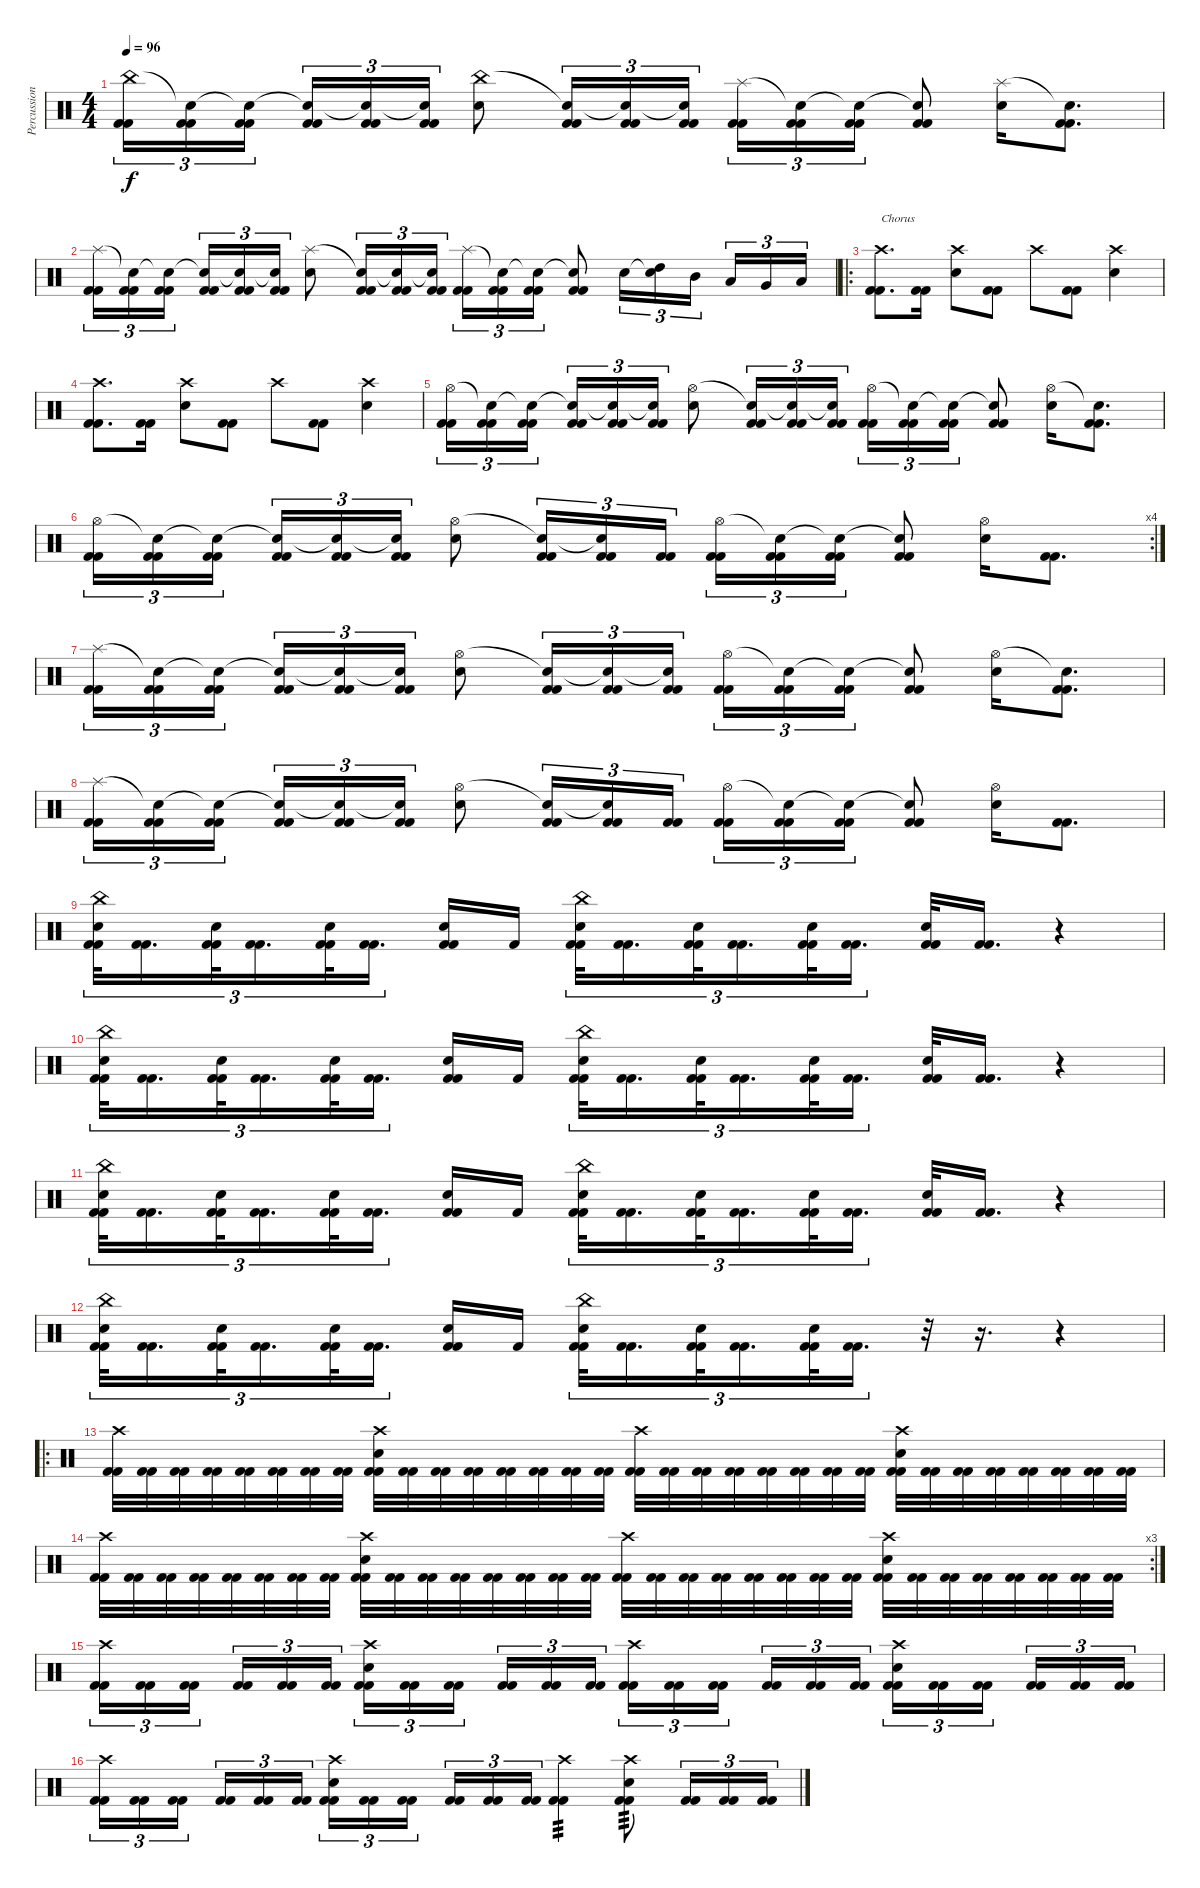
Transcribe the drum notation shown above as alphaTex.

\track ("Percussion" "Percussion") {instrument percussion}
\staff {score}
\articulation defaults
\ts (4 4)
\tempo 96
\clef neutral
\ks c
("China (hit)" "Kick (hit) 2" "Kick (hit) 2").16{tu (3 2) dy f} ("Snare (hit)"{t} "Kick (hit) 2" "Kick (hit) 2").16{tu (3 2)} ("Snare (hit)"{t} "Kick (hit) 2" "Kick (hit) 2").16{tu (3 2) beam splitsecondary} ("Snare (hit)"{t} "Kick (hit) 2" "Kick (hit) 2").16{tu (3 2)} ("Snare (hit)"{t} "Kick (hit) 2" "Kick (hit) 2").16{tu (3 2)} ("Snare (hit)"{t} "Kick (hit) 2" "Kick (hit) 2").16{tu (3 2)} ("China (hit)" "Snare (hit) 2").8 ("Snare (hit)"{t} "Kick (hit) 2" "Kick (hit) 2").16{tu (3 2)} ("Snare (hit)"{t} "Kick (hit) 2" "Kick (hit) 2").16{tu (3 2)} ("Snare (hit)"{t} "Kick (hit) 2" "Kick (hit) 2").16{tu (3 2)} ("Splash (hit)" "Kick (hit) 2" "Kick (hit) 2").16{tu (3 2)} ("Snare (hit)"{t} "Kick (hit) 2" "Kick (hit) 2").16{tu (3 2)} ("Snare (hit)"{t} "Kick (hit) 2" "Kick (hit) 2").16{tu (3 2)} ("Snare (hit)"{t} "Kick (hit) 2" "Kick (hit) 2").8 ("Splash (hit)" "Snare (hit) 2").16 ("Snare (hit)"{t} "Kick (hit) 2" "Kick (hit) 2").8{d} |
("Splash (hit)" "Kick (hit) 2" "Kick (hit) 2").16{tu (3 2)} ("Snare (hit)"{t} "Kick (hit) 2" "Kick (hit) 2").16{tu (3 2)} ("Snare (hit)"{t} "Kick (hit) 2" "Kick (hit) 2").16{tu (3 2) beam splitsecondary} ("Snare (hit)"{t} "Kick (hit) 2" "Kick (hit) 2").16{tu (3 2)} ("Snare (hit)"{t} "Kick (hit) 2" "Kick (hit) 2").16{tu (3 2)} ("Snare (hit)"{t} "Kick (hit) 2" "Kick (hit) 2").16{tu (3 2)} ("Splash (hit)" "Snare (hit) 2").8 ("Snare (hit)"{t} "Kick (hit) 2" "Kick (hit) 2").16{tu (3 2)} ("Snare (hit)"{t} "Kick (hit) 2" "Kick (hit) 2").16{tu (3 2)} ("Snare (hit)"{t} "Kick (hit) 2" "Kick (hit) 2").16{tu (3 2)} ("Splash (hit)" "Kick (hit) 2" "Kick (hit) 2").16{tu (3 2)} ("Snare (hit)"{t} "Kick (hit) 2" "Kick (hit) 2").16{tu (3 2)} ("Snare (hit)"{t} "Kick (hit) 2" "Kick (hit) 2").16{tu (3 2)} ("Snare (hit)"{t} "Kick (hit) 2" "Kick (hit) 2").8 "Snare (hit) 2".16{tu (3 2)} ("Snare (hit)"{t} "High Tom (hit)").16{tu (3 2)} "Mid Tom (hit)".16{tu (3 2) beam splitsecondary} "Low Tom (hit)".16{tu (3 2)} "Very Low Tom (hit)".16{tu (3 2)} "Low Floor Tom (hit)".16{tu (3 2)} |
\ro
("Crash high (hit)" "Kick (hit) 2" "Kick (hit) 2").8{d txt "Chorus"} ("Kick (hit) 2" "Kick (hit) 2").16 ("Crash high (hit)" "Snare (hit) 2").8 ("Kick (hit) 2" "Kick (hit) 2").8 "Crash high (hit)".8 ("Kick (hit) 2" "Kick (hit) 2").8 ("Crash high (hit)" "Snare (hit) 2").4 |
("Crash high (hit)" "Kick (hit) 2" "Kick (hit) 2").8{d} ("Kick (hit) 2" "Kick (hit) 2").16 ("Crash high (hit)" "Snare (hit) 2").8 ("Kick (hit) 2" "Kick (hit) 2").8 "Crash high (hit)".8 ("Kick (hit) 2" "Kick (hit) 2").8 ("Crash high (hit)" "Snare (hit) 2").4 |
("Hi-Hat (open)" "Kick (hit) 2" "Kick (hit) 2").16{tu (3 2)} ("Snare (hit)"{t} "Kick (hit) 2" "Kick (hit) 2").16{tu (3 2)} ("Snare (hit)"{t} "Kick (hit) 2" "Kick (hit) 2").16{tu (3 2) beam splitsecondary} ("Snare (hit)"{t} "Kick (hit) 2" "Kick (hit) 2").16{tu (3 2)} ("Snare (hit)"{t} "Kick (hit) 2" "Kick (hit) 2").16{tu (3 2)} ("Snare (hit)"{t} "Kick (hit) 2" "Kick (hit) 2").16{tu (3 2)} ("Hi-Hat (open)" "Snare (hit) 2").8 ("Snare (hit)"{t} "Kick (hit) 2" "Kick (hit) 2").16{tu (3 2)} ("Snare (hit)"{t} "Kick (hit) 2" "Kick (hit) 2").16{tu (3 2)} ("Snare (hit)"{t} "Kick (hit) 2" "Kick (hit) 2").16{tu (3 2)} ("Hi-Hat (open)" "Kick (hit) 2" "Kick (hit) 2").16{tu (3 2)} ("Snare (hit)"{t} "Kick (hit) 2" "Kick (hit) 2").16{tu (3 2)} ("Snare (hit)"{t} "Kick (hit) 2" "Kick (hit) 2").16{tu (3 2)} ("Snare (hit)"{t} "Kick (hit) 2" "Kick (hit) 2").8 ("Hi-Hat (open)" "Snare (hit) 2").16 ("Snare (hit)"{t} "Kick (hit) 2" "Kick (hit) 2").8{d} |
\rc 4
("Hi-Hat (open)" "Kick (hit) 2" "Kick (hit) 2").16{tu (3 2)} ("Snare (hit)"{t} "Kick (hit) 2" "Kick (hit) 2").16{tu (3 2)} ("Snare (hit)"{t} "Kick (hit) 2" "Kick (hit) 2").16{tu (3 2) beam splitsecondary} ("Snare (hit)"{t} "Kick (hit) 2" "Kick (hit) 2").16{tu (3 2)} ("Snare (hit)"{t} "Kick (hit) 2" "Kick (hit) 2").16{tu (3 2)} ("Snare (hit)"{t} "Kick (hit) 2" "Kick (hit) 2").16{tu (3 2)} ("Hi-Hat (open)" "Snare (hit) 2").8 ("Snare (hit)"{t} "Kick (hit) 2" "Kick (hit) 2").16{tu (3 2)} ("Snare (hit)"{t} "Kick (hit) 2" "Kick (hit) 2").16{tu (3 2)} ("Kick (hit) 2" "Kick (hit) 2").16{tu (3 2)} ("Hi-Hat (open)" "Kick (hit) 2" "Kick (hit) 2").16{tu (3 2)} ("Snare (hit)"{t} "Kick (hit) 2" "Kick (hit) 2").16{tu (3 2)} ("Snare (hit)"{t} "Kick (hit) 2" "Kick (hit) 2").16{tu (3 2)} ("Snare (hit)"{t} "Kick (hit) 2" "Kick (hit) 2").8 ("Hi-Hat (open)" "Snare (hit) 2").16 ("Kick (hit) 2" "Kick (hit) 2").8{d} |
("Splash (hit)" "Kick (hit) 2" "Kick (hit) 2").16{tu (3 2)} ("Snare (hit)"{t} "Kick (hit) 2" "Kick (hit) 2").16{tu (3 2)} ("Snare (hit)"{t} "Kick (hit) 2" "Kick (hit) 2").16{tu (3 2) beam splitsecondary} ("Snare (hit)"{t} "Kick (hit) 2" "Kick (hit) 2").16{tu (3 2)} ("Snare (hit)"{t} "Kick (hit) 2" "Kick (hit) 2").16{tu (3 2)} ("Snare (hit)"{t} "Kick (hit) 2" "Kick (hit) 2").16{tu (3 2)} ("Hi-Hat (open)" "Snare (hit) 2").8 ("Snare (hit)"{t} "Kick (hit) 2" "Kick (hit) 2").16{tu (3 2)} ("Snare (hit)"{t} "Kick (hit) 2" "Kick (hit) 2").16{tu (3 2)} ("Snare (hit)"{t} "Kick (hit) 2" "Kick (hit) 2").16{tu (3 2)} ("Hi-Hat (open)" "Kick (hit) 2" "Kick (hit) 2").16{tu (3 2)} ("Snare (hit)"{t} "Kick (hit) 2" "Kick (hit) 2").16{tu (3 2)} ("Snare (hit)"{t} "Kick (hit) 2" "Kick (hit) 2").16{tu (3 2)} ("Snare (hit)"{t} "Kick (hit) 2" "Kick (hit) 2").8 ("Hi-Hat (open)" "Snare (hit) 2").16 ("Snare (hit)"{t} "Kick (hit) 2" "Kick (hit) 2").8{d} |
("Splash (hit)" "Kick (hit) 2" "Kick (hit) 2").16{tu (3 2)} ("Snare (hit)"{t} "Kick (hit) 2" "Kick (hit) 2").16{tu (3 2)} ("Snare (hit)"{t} "Kick (hit) 2" "Kick (hit) 2").16{tu (3 2) beam splitsecondary} ("Snare (hit)"{t} "Kick (hit) 2" "Kick (hit) 2").16{tu (3 2)} ("Snare (hit)"{t} "Kick (hit) 2" "Kick (hit) 2").16{tu (3 2)} ("Snare (hit)"{t} "Kick (hit) 2" "Kick (hit) 2").16{tu (3 2)} ("Hi-Hat (open)" "Snare (hit) 2").8 ("Snare (hit)"{t} "Kick (hit) 2" "Kick (hit) 2").16{tu (3 2)} ("Snare (hit)"{t} "Kick (hit) 2" "Kick (hit) 2").16{tu (3 2)} ("Kick (hit) 2" "Kick (hit) 2").16{tu (3 2)} ("Hi-Hat (open)" "Kick (hit) 2" "Kick (hit) 2").16{tu (3 2)} ("Snare (hit)"{t} "Kick (hit) 2" "Kick (hit) 2").16{tu (3 2)} ("Snare (hit)"{t} "Kick (hit) 2" "Kick (hit) 2").16{tu (3 2)} ("Snare (hit)"{t} "Kick (hit) 2" "Kick (hit) 2").8 ("Hi-Hat (open)" "Snare (hit) 2").16 ("Kick (hit) 2" "Kick (hit) 2").8{d} |
("China (hit)" "Snare (hit) 2" "Kick (hit) 2" "Kick (hit) 2").32{tu (3 2)} ("Kick (hit) 2" "Kick (hit) 2").16{d tu (3 2)} ("Snare (hit) 2" "Kick (hit) 2" "Kick (hit) 2").32{tu (3 2)} ("Kick (hit) 2" "Kick (hit) 2").16{d tu (3 2)} ("Snare (hit) 2" "Kick (hit) 2" "Kick (hit) 2").32{tu (3 2)} ("Kick (hit) 2" "Kick (hit) 2").16{d tu (3 2)} ("Snare (hit) 2" "Kick (hit) 2" "Kick (hit) 2").16 "Kick (hit) 2".16{beam splitsecondary} ("China (hit)" "Snare (hit) 2" "Kick (hit) 2" "Kick (hit) 2").32{tu (3 2)} ("Kick (hit) 2" "Kick (hit) 2").16{d tu (3 2)} ("Snare (hit) 2" "Kick (hit) 2" "Kick (hit) 2").32{tu (3 2)} ("Kick (hit) 2" "Kick (hit) 2").16{d tu (3 2)} ("Snare (hit) 2" "Kick (hit) 2" "Kick (hit) 2").32{tu (3 2)} ("Kick (hit) 2" "Kick (hit) 2").16{d tu (3 2) beam splitsecondary} ("Snare (hit) 2" "Kick (hit) 2" "Kick (hit) 2").32 ("Kick (hit) 2" "Kick (hit) 2").16{d} r.4 |
("China (hit)" "Snare (hit) 2" "Kick (hit) 2" "Kick (hit) 2").32{tu (3 2)} ("Kick (hit) 2" "Kick (hit) 2").16{d tu (3 2)} ("Snare (hit) 2" "Kick (hit) 2" "Kick (hit) 2").32{tu (3 2)} ("Kick (hit) 2" "Kick (hit) 2").16{d tu (3 2)} ("Snare (hit) 2" "Kick (hit) 2" "Kick (hit) 2").32{tu (3 2)} ("Kick (hit) 2" "Kick (hit) 2").16{d tu (3 2)} ("Snare (hit) 2" "Kick (hit) 2" "Kick (hit) 2").16 "Kick (hit) 2".16{beam splitsecondary} ("China (hit)" "Snare (hit) 2" "Kick (hit) 2" "Kick (hit) 2").32{tu (3 2)} ("Kick (hit) 2" "Kick (hit) 2").16{d tu (3 2)} ("Snare (hit) 2" "Kick (hit) 2" "Kick (hit) 2").32{tu (3 2)} ("Kick (hit) 2" "Kick (hit) 2").16{d tu (3 2)} ("Snare (hit) 2" "Kick (hit) 2" "Kick (hit) 2").32{tu (3 2)} ("Kick (hit) 2" "Kick (hit) 2").16{d tu (3 2) beam splitsecondary} ("Snare (hit) 2" "Kick (hit) 2" "Kick (hit) 2").32 ("Kick (hit) 2" "Kick (hit) 2").16{d} r.4 |
("China (hit)" "Snare (hit) 2" "Kick (hit) 2" "Kick (hit) 2").32{tu (3 2)} ("Kick (hit) 2" "Kick (hit) 2").16{d tu (3 2)} ("Snare (hit) 2" "Kick (hit) 2" "Kick (hit) 2").32{tu (3 2)} ("Kick (hit) 2" "Kick (hit) 2").16{d tu (3 2)} ("Snare (hit) 2" "Kick (hit) 2" "Kick (hit) 2").32{tu (3 2)} ("Kick (hit) 2" "Kick (hit) 2").16{d tu (3 2)} ("Snare (hit) 2" "Kick (hit) 2" "Kick (hit) 2").16 "Kick (hit) 2".16{beam splitsecondary} ("China (hit)" "Snare (hit) 2" "Kick (hit) 2" "Kick (hit) 2").32{tu (3 2)} ("Kick (hit) 2" "Kick (hit) 2").16{d tu (3 2)} ("Snare (hit) 2" "Kick (hit) 2" "Kick (hit) 2").32{tu (3 2)} ("Kick (hit) 2" "Kick (hit) 2").16{d tu (3 2)} ("Snare (hit) 2" "Kick (hit) 2" "Kick (hit) 2").32{tu (3 2)} ("Kick (hit) 2" "Kick (hit) 2").16{d tu (3 2) beam splitsecondary} ("Snare (hit) 2" "Kick (hit) 2" "Kick (hit) 2").32 ("Kick (hit) 2" "Kick (hit) 2").16{d} r.4 |
("China (hit)" "Snare (hit) 2" "Kick (hit) 2" "Kick (hit) 2").32{tu (3 2)} ("Kick (hit) 2" "Kick (hit) 2").16{d tu (3 2)} ("Snare (hit) 2" "Kick (hit) 2" "Kick (hit) 2").32{tu (3 2)} ("Kick (hit) 2" "Kick (hit) 2").16{d tu (3 2)} ("Snare (hit) 2" "Kick (hit) 2" "Kick (hit) 2").32{tu (3 2)} ("Kick (hit) 2" "Kick (hit) 2").16{d tu (3 2)} ("Snare (hit) 2" "Kick (hit) 2" "Kick (hit) 2").16 "Kick (hit) 2".16{beam splitsecondary} ("China (hit)" "Snare (hit) 2" "Kick (hit) 2" "Kick (hit) 2").32{tu (3 2)} ("Kick (hit) 2" "Kick (hit) 2").16{d tu (3 2)} ("Snare (hit) 2" "Kick (hit) 2" "Kick (hit) 2").32{tu (3 2)} ("Kick (hit) 2" "Kick (hit) 2").16{d tu (3 2)} ("Snare (hit) 2" "Kick (hit) 2" "Kick (hit) 2").32{tu (3 2)} ("Kick (hit) 2" "Kick (hit) 2").16{d tu (3 2)} r.32 r.16{d} r.4 |
\ro
("Crash high (hit)" "Kick (hit) 2" "Kick (hit) 2").32 ("Kick (hit) 2" "Kick (hit) 2").32 ("Kick (hit) 2" "Kick (hit) 2").32 ("Kick (hit) 2" "Kick (hit) 2").32 ("Kick (hit) 2" "Kick (hit) 2").32 ("Kick (hit) 2" "Kick (hit) 2").32 ("Kick (hit) 2" "Kick (hit) 2").32 ("Kick (hit) 2" "Kick (hit) 2").32 ("Crash high (hit)" "Snare (hit) 2" "Kick (hit) 2" "Kick (hit) 2").32 ("Kick (hit) 2" "Kick (hit) 2").32 ("Kick (hit) 2" "Kick (hit) 2").32 ("Kick (hit) 2" "Kick (hit) 2").32 ("Kick (hit) 2" "Kick (hit) 2").32 ("Kick (hit) 2" "Kick (hit) 2").32 ("Kick (hit) 2" "Kick (hit) 2").32 ("Kick (hit) 2" "Kick (hit) 2").32 ("Crash high (hit)" "Kick (hit) 2" "Kick (hit) 2").32 ("Kick (hit) 2" "Kick (hit) 2").32 ("Kick (hit) 2" "Kick (hit) 2").32 ("Kick (hit) 2" "Kick (hit) 2").32 ("Kick (hit) 2" "Kick (hit) 2").32 ("Kick (hit) 2" "Kick (hit) 2").32 ("Kick (hit) 2" "Kick (hit) 2").32 ("Kick (hit) 2" "Kick (hit) 2").32 ("Crash high (hit)" "Snare (hit) 2" "Kick (hit) 2" "Kick (hit) 2").32 ("Kick (hit) 2" "Kick (hit) 2").32 ("Kick (hit) 2" "Kick (hit) 2").32 ("Kick (hit) 2" "Kick (hit) 2").32 ("Kick (hit) 2" "Kick (hit) 2").32 ("Kick (hit) 2" "Kick (hit) 2").32 ("Kick (hit) 2" "Kick (hit) 2").32 ("Kick (hit) 2" "Kick (hit) 2").32 |
\rc 3
("Crash high (hit)" "Kick (hit) 2" "Kick (hit) 2").32 ("Kick (hit) 2" "Kick (hit) 2").32 ("Kick (hit) 2" "Kick (hit) 2").32 ("Kick (hit) 2" "Kick (hit) 2").32 ("Kick (hit) 2" "Kick (hit) 2").32 ("Kick (hit) 2" "Kick (hit) 2").32 ("Kick (hit) 2" "Kick (hit) 2").32 ("Kick (hit) 2" "Kick (hit) 2").32 ("Crash high (hit)" "Snare (hit) 2" "Kick (hit) 2" "Kick (hit) 2").32 ("Kick (hit) 2" "Kick (hit) 2").32 ("Kick (hit) 2" "Kick (hit) 2").32 ("Kick (hit) 2" "Kick (hit) 2").32 ("Kick (hit) 2" "Kick (hit) 2").32 ("Kick (hit) 2" "Kick (hit) 2").32 ("Kick (hit) 2" "Kick (hit) 2").32 ("Kick (hit) 2" "Kick (hit) 2").32 ("Crash high (hit)" "Kick (hit) 2" "Kick (hit) 2").32 ("Kick (hit) 2" "Kick (hit) 2").32 ("Kick (hit) 2" "Kick (hit) 2").32 ("Kick (hit) 2" "Kick (hit) 2").32 ("Kick (hit) 2" "Kick (hit) 2").32 ("Kick (hit) 2" "Kick (hit) 2").32 ("Kick (hit) 2" "Kick (hit) 2").32 ("Kick (hit) 2" "Kick (hit) 2").32 ("Crash high (hit)" "Snare (hit) 2" "Kick (hit) 2" "Kick (hit) 2").32 ("Kick (hit) 2" "Kick (hit) 2").32 ("Kick (hit) 2" "Kick (hit) 2").32 ("Kick (hit) 2" "Kick (hit) 2").32 ("Kick (hit) 2" "Kick (hit) 2").32 ("Kick (hit) 2" "Kick (hit) 2").32 ("Kick (hit) 2" "Kick (hit) 2").32 ("Kick (hit) 2" "Kick (hit) 2").32 |
("Crash high (hit)" "Kick (hit) 2" "Kick (hit) 2").16{tu (3 2)} ("Kick (hit) 2" "Kick (hit) 2").16{tu (3 2)} ("Kick (hit) 2" "Kick (hit) 2").16{tu (3 2) beam splitsecondary} ("Kick (hit) 2" "Kick (hit) 2").16{tu (3 2)} ("Kick (hit) 2" "Kick (hit) 2").16{tu (3 2)} ("Kick (hit) 2" "Kick (hit) 2").16{tu (3 2)} ("Crash high (hit)" "Snare (hit) 2" "Kick (hit) 2" "Kick (hit) 2").16{tu (3 2)} ("Kick (hit) 2" "Kick (hit) 2").16{tu (3 2)} ("Kick (hit) 2" "Kick (hit) 2").16{tu (3 2) beam splitsecondary} ("Kick (hit) 2" "Kick (hit) 2").16{tu (3 2)} ("Kick (hit) 2" "Kick (hit) 2").16{tu (3 2)} ("Kick (hit) 2" "Kick (hit) 2").16{tu (3 2)} ("Crash high (hit)" "Kick (hit) 2" "Kick (hit) 2").16{tu (3 2)} ("Kick (hit) 2" "Kick (hit) 2").16{tu (3 2)} ("Kick (hit) 2" "Kick (hit) 2").16{tu (3 2) beam splitsecondary} ("Kick (hit) 2" "Kick (hit) 2").16{tu (3 2)} ("Kick (hit) 2" "Kick (hit) 2").16{tu (3 2)} ("Kick (hit) 2" "Kick (hit) 2").16{tu (3 2)} ("Crash high (hit)" "Snare (hit) 2" "Kick (hit) 2" "Kick (hit) 2").16{tu (3 2)} ("Kick (hit) 2" "Kick (hit) 2").16{tu (3 2)} ("Kick (hit) 2" "Kick (hit) 2").16{tu (3 2) beam splitsecondary} ("Kick (hit) 2" "Kick (hit) 2").16{tu (3 2)} ("Kick (hit) 2" "Kick (hit) 2").16{tu (3 2)} ("Kick (hit) 2" "Kick (hit) 2").16{tu (3 2)} |
("Crash high (hit)" "Kick (hit) 2" "Kick (hit) 2").16{tu (3 2)} ("Kick (hit) 2" "Kick (hit) 2").16{tu (3 2)} ("Kick (hit) 2" "Kick (hit) 2").16{tu (3 2) beam splitsecondary} ("Kick (hit) 2" "Kick (hit) 2").16{tu (3 2)} ("Kick (hit) 2" "Kick (hit) 2").16{tu (3 2)} ("Kick (hit) 2" "Kick (hit) 2").16{tu (3 2)} ("Crash high (hit)" "Snare (hit) 2" "Kick (hit) 2" "Kick (hit) 2").16{tu (3 2)} ("Kick (hit) 2" "Kick (hit) 2").16{tu (3 2)} ("Kick (hit) 2" "Kick (hit) 2").16{tu (3 2) beam splitsecondary} ("Kick (hit) 2" "Kick (hit) 2").16{tu (3 2)} ("Kick (hit) 2" "Kick (hit) 2").16{tu (3 2)} ("Kick (hit) 2" "Kick (hit) 2").16{tu (3 2)} ("Crash high (hit)" "Kick (hit) 2" "Kick (hit) 2").4{tp 3} ("Crash high (hit)" "Snare (hit) 2" "Kick (hit) 2" "Kick (hit) 2").8{tp 3} ("Kick (hit) 2" "Kick (hit) 2").16{tu (3 2)} ("Kick (hit) 2" "Kick (hit) 2").16{tu (3 2)} ("Kick (hit) 2" "Kick (hit) 2").16{tu (3 2)}
